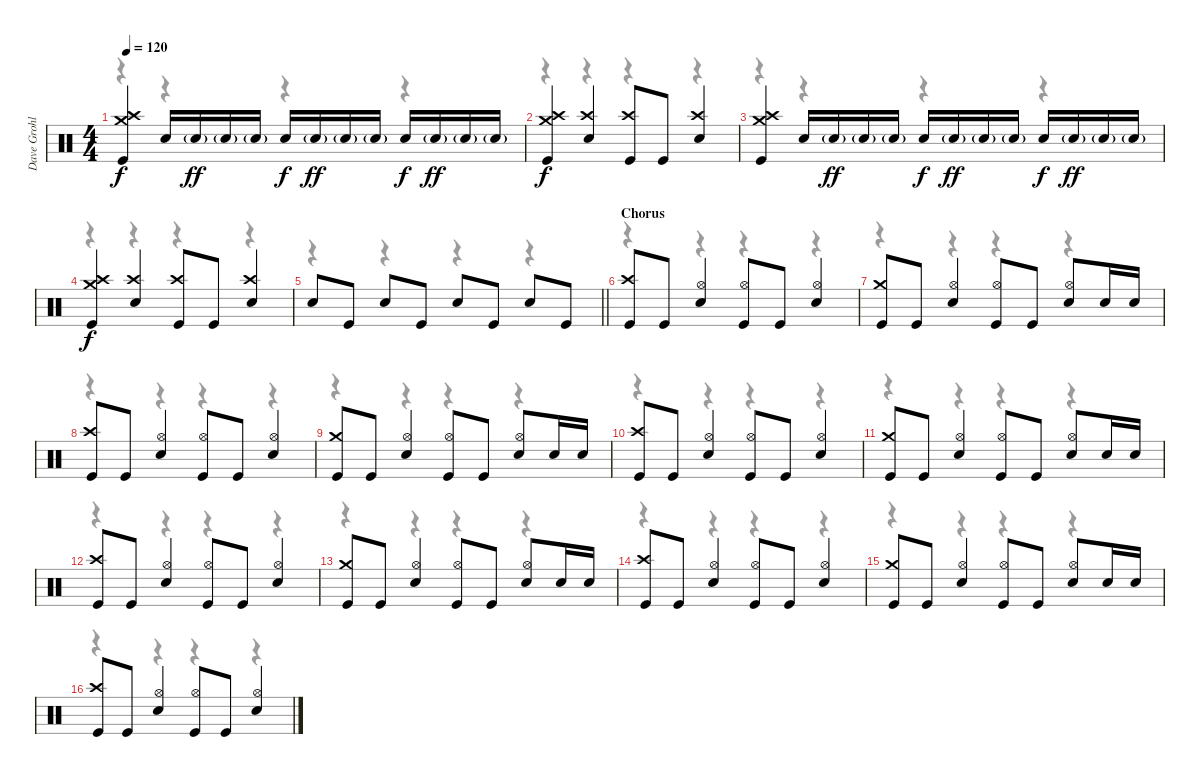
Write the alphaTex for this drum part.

\track ("Dave Grohl" "Dave Grohl") {instrument percussion}
\staff {score}
\articulation defaults
\voice
\ts (4 4)
\tempo 120
\clef neutral
\ks c
("Crash medium (hit)" "Crash high (hit)" "Kick (hit)").4{dy f} "Snare (hit) 2".16 "Snare (hit) 2"{g}.16{dy ff} "Snare (hit) 2"{g}.16 "Snare (hit) 2"{g}.16 "Snare (hit) 2".16{dy f} "Snare (hit) 2"{g}.16{dy ff} "Snare (hit) 2"{g}.16 "Snare (hit) 2"{g}.16 "Snare (hit) 2".16{dy f} "Snare (hit) 2"{g}.16{dy ff} "Snare (hit) 2"{g}.16 "Snare (hit) 2"{g}.16 |
("Crash medium (hit)" "Crash high (hit)" "Kick (hit)").4{dy f} ("Crash high (hit)" "Snare (hit) 2").4 ("Crash high (hit)" "Kick (hit)").8 "Kick (hit)".8 ("Crash high (hit)" "Snare (hit) 2").4 |
("Crash medium (hit)" "Crash high (hit)" "Kick (hit)").4 "Snare (hit) 2".16 "Snare (hit) 2"{g}.16{dy ff} "Snare (hit) 2"{g}.16 "Snare (hit) 2"{g}.16 "Snare (hit) 2".16{dy f} "Snare (hit) 2"{g}.16{dy ff} "Snare (hit) 2"{g}.16 "Snare (hit) 2"{g}.16 "Snare (hit) 2".16{dy f} "Snare (hit) 2"{g}.16{dy ff} "Snare (hit) 2"{g}.16 "Snare (hit) 2"{g}.16 |
("Crash medium (hit)" "Crash high (hit)" "Kick (hit)").4{dy f} ("Crash high (hit)" "Snare (hit) 2").4 ("Crash high (hit)" "Kick (hit)").8 "Kick (hit)".8 ("Crash high (hit)" "Snare (hit) 2").4 |
\barLineRight lightlight "Snare (hit) 2".8 "Kick (hit)".8 "Snare (hit) 2".8 "Kick (hit)".8 "Snare (hit) 2".8 "Kick (hit)".8 "Snare (hit) 2".8 "Kick (hit)".8
|
\section ("" "Chorus")
("Crash high (hit)" "Kick (hit)").8 "Kick (hit)".8 ("Hi-Hat (open)" "Snare (hit) 2").4 ("Hi-Hat (open)" "Kick (hit)").8 "Kick (hit)".8 ("Hi-Hat (open)" "Snare (hit) 2").4 |
("Crash medium (hit)" "Kick (hit)").8 "Kick (hit)".8 ("Hi-Hat (open)" "Snare (hit) 2").4 ("Hi-Hat (open)" "Kick (hit)").8 "Kick (hit)".8 ("Hi-Hat (open)" "Snare (hit) 2").8 "Snare (hit) 2".16 "Snare (hit) 2".16 |
("Crash high (hit)" "Kick (hit)").8 "Kick (hit)".8 ("Hi-Hat (open)" "Snare (hit) 2").4 ("Hi-Hat (open)" "Kick (hit)").8 "Kick (hit)".8 ("Hi-Hat (open)" "Snare (hit) 2").4 |
("Crash medium (hit)" "Kick (hit)").8 "Kick (hit)".8 ("Hi-Hat (open)" "Snare (hit) 2").4 ("Hi-Hat (open)" "Kick (hit)").8 "Kick (hit)".8 ("Hi-Hat (open)" "Snare (hit) 2").8 "Snare (hit) 2".16 "Snare (hit) 2".16 |
("Crash high (hit)" "Kick (hit)").8 "Kick (hit)".8 ("Hi-Hat (open)" "Snare (hit) 2").4 ("Hi-Hat (open)" "Kick (hit)").8 "Kick (hit)".8 ("Hi-Hat (open)" "Snare (hit) 2").4 |
("Crash medium (hit)" "Kick (hit)").8 "Kick (hit)".8 ("Hi-Hat (open)" "Snare (hit) 2").4 ("Hi-Hat (open)" "Kick (hit)").8 "Kick (hit)".8 ("Hi-Hat (open)" "Snare (hit) 2").8 "Snare (hit) 2".16 "Snare (hit) 2".16 |
("Crash high (hit)" "Kick (hit)").8 "Kick (hit)".8 ("Hi-Hat (open)" "Snare (hit) 2").4 ("Hi-Hat (open)" "Kick (hit)").8 "Kick (hit)".8 ("Hi-Hat (open)" "Snare (hit) 2").4 |
("Crash medium (hit)" "Kick (hit)").8 "Kick (hit)".8 ("Hi-Hat (open)" "Snare (hit) 2").4 ("Hi-Hat (open)" "Kick (hit)").8 "Kick (hit)".8 ("Hi-Hat (open)" "Snare (hit) 2").8 "Snare (hit) 2".16 "Snare (hit) 2".16 |
("Crash high (hit)" "Kick (hit)").8 "Kick (hit)".8 ("Hi-Hat (open)" "Snare (hit) 2").4 ("Hi-Hat (open)" "Kick (hit)").8 "Kick (hit)".8 ("Hi-Hat (open)" "Snare (hit) 2").4 |
("Crash medium (hit)" "Kick (hit)").8 "Kick (hit)".8 ("Hi-Hat (open)" "Snare (hit) 2").4 ("Hi-Hat (open)" "Kick (hit)").8 "Kick (hit)".8 ("Hi-Hat (open)" "Snare (hit) 2").8 "Snare (hit) 2".16 "Snare (hit) 2".16 |
("Crash high (hit)" "Kick (hit)").8 "Kick (hit)".8 ("Hi-Hat (open)" "Snare (hit) 2").4 ("Hi-Hat (open)" "Kick (hit)").8 "Kick (hit)".8 ("Hi-Hat (open)" "Snare (hit) 2").4
\voice
\clef neutral
\ottava regular
\simile none
\ks c
r.4{dy f} r.4 r.4 r.4 |
r.4 r.4 r.4 r.4 |
r.4 r.4 r.4 r.4 |
r.4 r.4 r.4 r.4 |
\barLineRight lightlight
r.4 r.4 r.4 r.4 |
r.4 r.4 r.4 r.4 |
r.4 r.4 r.4 r.4 |
r.4 r.4 r.4 r.4 |
r.4 r.4 r.4 r.4 |
r.4 r.4 r.4 r.4 |
r.4 r.4 r.4 r.4 |
r.4 r.4 r.4 r.4 |
r.4 r.4 r.4 r.4 |
r.4 r.4 r.4 r.4 |
r.4 r.4 r.4 r.4 |
r.4 r.4 r.4 r.4
